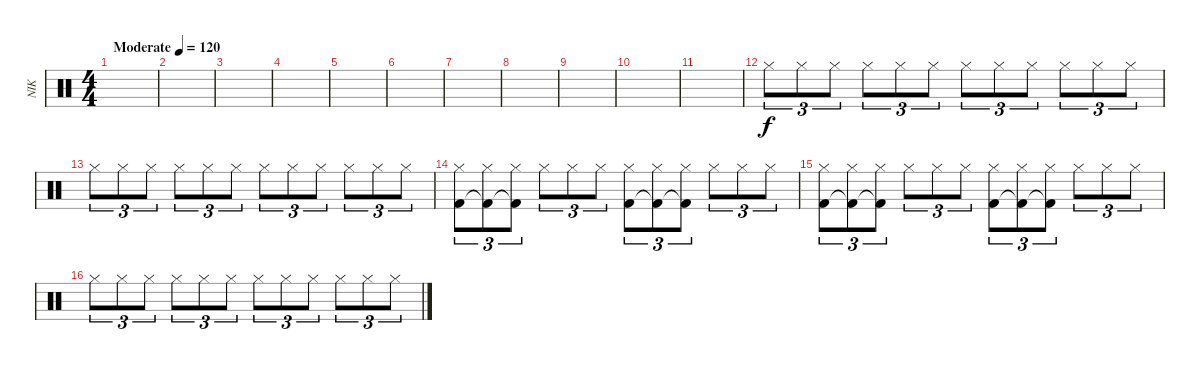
\track ("NIK" "NIK") {instrument percussion}
\staff {score}
\articulation defaults
\ts (4 4)
\tempo (120 "Moderate")
\clef neutral
\ks c
|
|
|
|
|
|
|
|
|
|
|
"Hi-Hat (closed)".8{tu (3 2)} "Hi-Hat (closed)".8{tu (3 2)} "Hi-Hat (closed)".8{tu (3 2)} "Hi-Hat (closed)".8{tu (3 2)} "Hi-Hat (closed)".8{tu (3 2)} "Hi-Hat (closed)".8{tu (3 2)} "Hi-Hat (closed)".8{tu (3 2)} "Hi-Hat (closed)".8{tu (3 2)} "Hi-Hat (closed)".8{tu (3 2)} "Hi-Hat (closed)".8{tu (3 2)} "Hi-Hat (closed)".8{tu (3 2)} "Hi-Hat (closed)".8{tu (3 2)} |
"Hi-Hat (closed)".8{tu (3 2)} "Hi-Hat (closed)".8{tu (3 2)} "Hi-Hat (closed)".8{tu (3 2)} "Hi-Hat (closed)".8{tu (3 2)} "Hi-Hat (closed)".8{tu (3 2)} "Hi-Hat (closed)".8{tu (3 2)} "Hi-Hat (closed)".8{tu (3 2)} "Hi-Hat (closed)".8{tu (3 2)} "Hi-Hat (closed)".8{tu (3 2)} "Hi-Hat (closed)".8{tu (3 2)} "Hi-Hat (closed)".8{tu (3 2)} "Hi-Hat (closed)".8{tu (3 2)} |
("Hi-Hat (closed)" "Kick (hit) 2").8{tu (3 2)} ("Hi-Hat (closed)" "Kick (hit) 2"{t}).8{tu (3 2)} ("Hi-Hat (closed)" "Kick (hit) 2"{t}).8{tu (3 2)} "Hi-Hat (closed)".8{tu (3 2)} "Hi-Hat (closed)".8{tu (3 2)} "Hi-Hat (closed)".8{tu (3 2)} ("Hi-Hat (closed)" "Kick (hit) 2").8{tu (3 2)} ("Hi-Hat (closed)" "Kick (hit) 2"{t}).8{tu (3 2)} ("Hi-Hat (closed)" "Kick (hit) 2"{t}).8{tu (3 2)} "Hi-Hat (closed)".8{tu (3 2)} "Hi-Hat (closed)".8{tu (3 2)} "Hi-Hat (closed)".8{tu (3 2)} |
("Hi-Hat (closed)" "Kick (hit) 2").8{tu (3 2)} ("Hi-Hat (closed)" "Kick (hit) 2"{t}).8{tu (3 2)} ("Hi-Hat (closed)" "Kick (hit) 2"{t}).8{tu (3 2)} "Hi-Hat (closed)".8{tu (3 2)} "Hi-Hat (closed)".8{tu (3 2)} "Hi-Hat (closed)".8{tu (3 2)} ("Hi-Hat (closed)" "Kick (hit) 2").8{tu (3 2)} ("Hi-Hat (closed)" "Kick (hit) 2"{t}).8{tu (3 2)} ("Hi-Hat (closed)" "Kick (hit) 2"{t}).8{tu (3 2)} "Hi-Hat (closed)".8{tu (3 2)} "Hi-Hat (closed)".8{tu (3 2)} "Hi-Hat (closed)".8{tu (3 2)} |
"Hi-Hat (closed)".8{tu (3 2)} "Hi-Hat (closed)".8{tu (3 2)} "Hi-Hat (closed)".8{tu (3 2)} "Hi-Hat (closed)".8{tu (3 2)} "Hi-Hat (closed)".8{tu (3 2)} "Hi-Hat (closed)".8{tu (3 2)} "Hi-Hat (closed)".8{tu (3 2)} "Hi-Hat (closed)".8{tu (3 2)} "Hi-Hat (closed)".8{tu (3 2)} "Hi-Hat (closed)".8{tu (3 2)} "Hi-Hat (closed)".8{tu (3 2)} "Hi-Hat (closed)".8{tu (3 2)}
